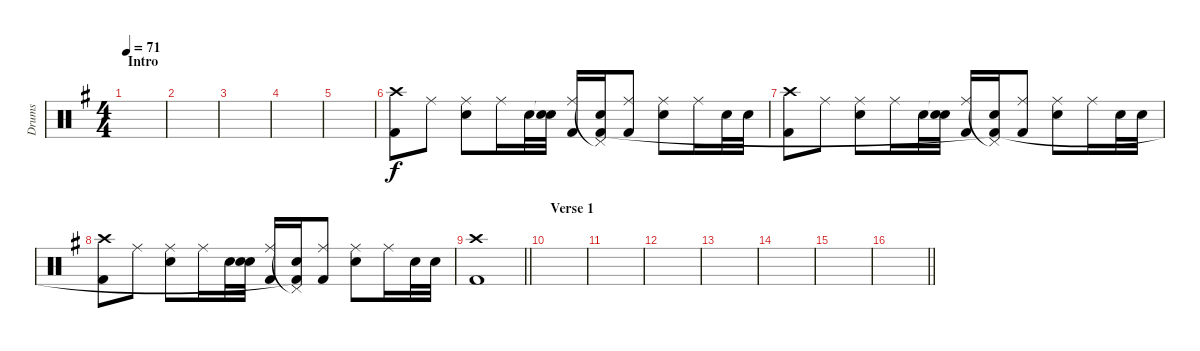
\track ("Drums" "Drums") {instrument percussion}
\staff {score}
\articulation defaults
\ts (4 4)
\section ("" "Intro")
\tempo 71
\tempo 200
\tempo 71
\clef neutral
\ks eminor
|
|
|
|
|
("Crash high (hit)" "Kick (hit) 2").8 "Ride (middle)".8 ("Ride (middle)" "Electric Snare (hit)").8 "Ride (middle)".16 "Electric Snare (hit)".32 ("Snare (hit)"{t} "Electric Snare (hit)").32 ("Ride (middle)" "Kick (hit) 2").16 ("Pedal Hi-Hat (hit)"{t} "Electric Snare (hit)" "Kick (hit) 2").16 ("Ride (middle)" "Kick (hit) 2").8 ("Ride (middle)" "Electric Snare (hit)").8 "Ride (middle)".16 "Electric Snare (hit)".32 "Electric Snare (hit)".32 |
("Crash high (hit)" "Kick (hit) 2").8 "Ride (middle)".8 ("Ride (middle)" "Electric Snare (hit)").8 "Ride (middle)".16 "Electric Snare (hit)".32 ("Snare (hit)"{t} "Electric Snare (hit)").32 ("Ride (middle)" "Kick (hit) 2").16 ("Pedal Hi-Hat (hit)"{t} "Electric Snare (hit)" "Kick (hit) 2"{t}).16 ("Ride (middle)" "Kick (hit) 2").8 ("Ride (middle)" "Electric Snare (hit)").8 "Ride (middle)".16 "Electric Snare (hit)".32 "Electric Snare (hit)".32 |
("Crash high (hit)" "Kick (hit) 2").8 "Ride (middle)".8 ("Ride (middle)" "Electric Snare (hit)").8 "Ride (middle)".16 "Electric Snare (hit)".32 ("Snare (hit)"{t} "Electric Snare (hit)").32 ("Ride (middle)" "Kick (hit) 2").16 ("Pedal Hi-Hat (hit)"{t} "Electric Snare (hit)" "Kick (hit) 2"{t}).16 ("Ride (middle)" "Kick (hit) 2").8 ("Ride (middle)" "Electric Snare (hit)").8 "Ride (middle)".16 "Electric Snare (hit)".32 "Electric Snare (hit)".32 |
\barLineRight lightlight
("Crash high (hit)" "Kick (hit) 2").1 |
\section ("" "Verse 1")
|
|
|
|
|
|
\barLineRight lightlight
